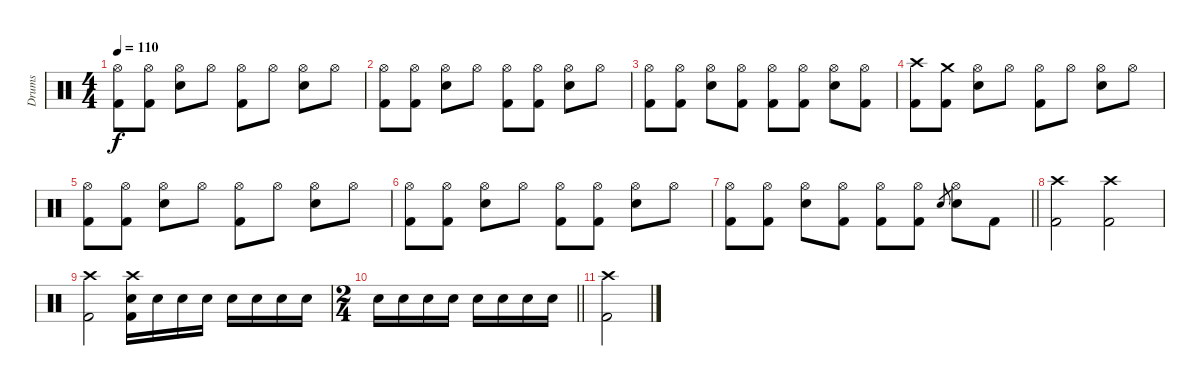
\track ("Drums" "Drums") {instrument percussion}
\staff {score}
\articulation defaults
\ts (4 4)
\tempo 110
\clef neutral
\ks c
("Hi-Hat (open)" "Kick (hit) 2").8{dy f} ("Hi-Hat (open)" "Kick (hit) 2").8 ("Hi-Hat (open)" "Electric Snare (hit)").8 "Hi-Hat (open)".8 ("Hi-Hat (open)" "Kick (hit) 2").8 "Hi-Hat (open)".8 ("Hi-Hat (open)" "Electric Snare (hit)").8 "Hi-Hat (open)".8 |
("Hi-Hat (open)" "Kick (hit) 2").8 ("Hi-Hat (open)" "Kick (hit) 2").8 ("Hi-Hat (open)" "Electric Snare (hit)").8 "Hi-Hat (open)".8 ("Hi-Hat (open)" "Kick (hit) 2").8 ("Hi-Hat (open)" "Kick (hit) 2").8 ("Hi-Hat (open)" "Electric Snare (hit)").8 "Hi-Hat (open)".8 |
("Hi-Hat (open)" "Kick (hit) 2").8 ("Hi-Hat (open)" "Kick (hit) 2").8 ("Hi-Hat (open)" "Electric Snare (hit)").8 ("Hi-Hat (open)" "Kick (hit) 2").8 ("Hi-Hat (open)" "Kick (hit) 2").8 ("Hi-Hat (open)" "Kick (hit) 2").8 ("Hi-Hat (open)" "Electric Snare (hit)").8 ("Hi-Hat (open)" "Kick (hit) 2").8 |
("Crash high (hit)" "Kick (hit) 2").8 ("Crash medium (hit)" "Kick (hit) 2").8 ("Hi-Hat (open)" "Electric Snare (hit)").8 "Hi-Hat (open)".8 ("Hi-Hat (open)" "Kick (hit) 2").8 "Hi-Hat (open)".8 ("Hi-Hat (open)" "Electric Snare (hit)").8 "Hi-Hat (open)".8 |
("Hi-Hat (open)" "Kick (hit) 2").8 ("Hi-Hat (open)" "Kick (hit) 2").8 ("Hi-Hat (open)" "Electric Snare (hit)").8 "Hi-Hat (open)".8 ("Hi-Hat (open)" "Kick (hit) 2").8 "Hi-Hat (open)".8 ("Hi-Hat (open)" "Electric Snare (hit)").8 "Hi-Hat (open)".8 |
("Hi-Hat (open)" "Kick (hit) 2").8 ("Hi-Hat (open)" "Kick (hit) 2").8 ("Hi-Hat (open)" "Electric Snare (hit)").8 "Hi-Hat (open)".8 ("Hi-Hat (open)" "Kick (hit) 2").8 ("Hi-Hat (open)" "Kick (hit) 2").8 ("Hi-Hat (open)" "Electric Snare (hit)").8 "Hi-Hat (open)".8 |
\barLineRight lightlight
("Hi-Hat (open)" "Kick (hit) 2").8 ("Hi-Hat (open)" "Kick (hit) 2").8 ("Hi-Hat (open)" "Electric Snare (hit)").8 ("Hi-Hat (open)" "Kick (hit) 2").8 ("Hi-Hat (open)" "Kick (hit) 2").8 ("Hi-Hat (open)" "Kick (hit) 2").8 "Electric Snare (hit)".8{gr} ("Hi-Hat (open)" "Electric Snare (hit)").8 "Kick (hit) 2".8 |
("Crash high (hit)" "Kick (hit) 2").2 ("Crash high (hit)" "Kick (hit) 2").2 |
("Crash high (hit)" "Kick (hit) 2").2 ("Crash high (hit)" "Electric Snare (hit)" "Kick (hit) 2").16 "Electric Snare (hit)".16 "Electric Snare (hit)".16 "Electric Snare (hit)".16 "Electric Snare (hit)".16 "Electric Snare (hit)".16 "Electric Snare (hit)".16 "Electric Snare (hit)".16 |
\ts (2 4)
\barLineRight lightlight "Electric Snare (hit)".16 "Electric Snare (hit)".16 "Electric Snare (hit)".16 "Electric Snare (hit)".16 "Electric Snare (hit)".16 "Electric Snare (hit)".16 "Electric Snare (hit)".16 "Electric Snare (hit)".16
|
("Crash high (hit)" "Kick (hit) 2").2
